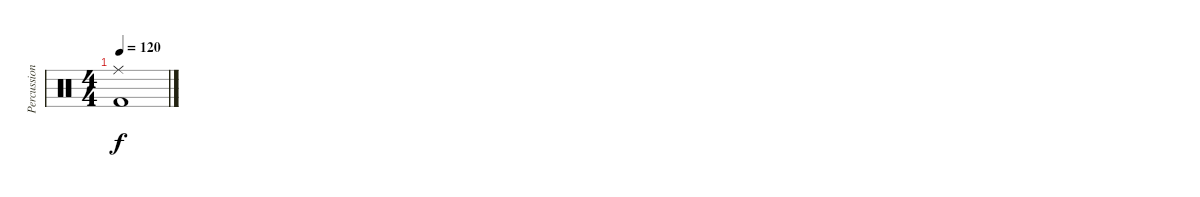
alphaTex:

\track ("Percussion" "Percussion") {instrument percussion}
\staff {score}
\articulation defaults
\ts (4 4)
\tempo 120
\clef neutral
\ks c
("Ride (middle)" "Kick (hit) 2").1{dy f}
